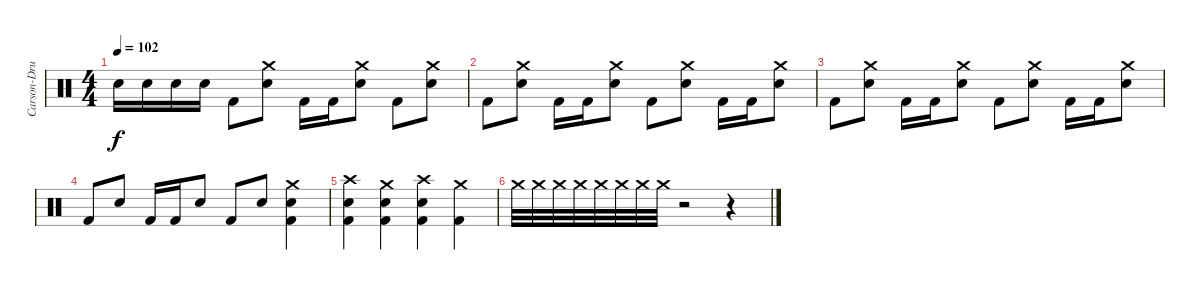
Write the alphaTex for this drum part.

\track ("Carson-Drums" "Carson-Dru") {instrument percussion}
\staff {score}
\articulation defaults
\ts (4 4)
\tempo 102
\clef neutral
\ks c "Snare (hit) 2".16{dy f} "Snare (hit) 2".16 "Snare (hit) 2".16 "Snare (hit) 2".16 "Kick (hit) 2".8
("Crash medium (hit)" "Snare (hit) 2").8 "Kick (hit) 2".16 "Kick (hit) 2".16 ("Crash medium (hit)" "Snare (hit) 2").8 "Kick (hit) 2".8 ("Crash medium (hit)" "Snare (hit) 2").8 |
"Kick (hit) 2".8 ("Crash medium (hit)" "Snare (hit) 2").8 "Kick (hit) 2".16 "Kick (hit) 2".16 ("Crash medium (hit)" "Snare (hit) 2").8 "Kick (hit) 2".8 ("Crash medium (hit)" "Snare (hit) 2").8 "Kick (hit) 2".16 "Kick (hit) 2".16 ("Crash medium (hit)" "Snare (hit) 2").8 |
"Kick (hit) 2".8 ("Crash medium (hit)" "Snare (hit) 2").8 "Kick (hit) 2".16 "Kick (hit) 2".16 ("Crash medium (hit)" "Snare (hit) 2").8 "Kick (hit) 2".8 ("Crash medium (hit)" "Snare (hit) 2").8 "Kick (hit) 2".16 "Kick (hit) 2".16 ("Crash medium (hit)" "Snare (hit) 2").8 |
"Kick (hit) 2".8 "Snare (hit) 2".8 "Kick (hit) 2".16 "Kick (hit) 2".16 "Snare (hit) 2".8 "Kick (hit) 2".8 "Snare (hit) 2".8 ("Kick (hit) 2" "Crash medium (hit)" "Snare (hit) 2").4 |
("Kick (hit) 2" "Crash high (hit)" "Snare (hit) 2").4 ("Kick (hit) 2" "Crash medium (hit)" "Snare (hit) 2").4 ("Kick (hit) 2" "Crash high (hit)" "Snare (hit) 2").4 ("Kick (hit) 2" "Crash medium (hit)").4 |
"Crash medium (hit)".32 "Crash medium (hit)".32 "Crash medium (hit)".32 "Crash medium (hit)".32 "Crash medium (hit)".32 "Crash medium (hit)".32 "Crash medium (hit)".32 "Crash medium (hit)".32 r.2 r.4
